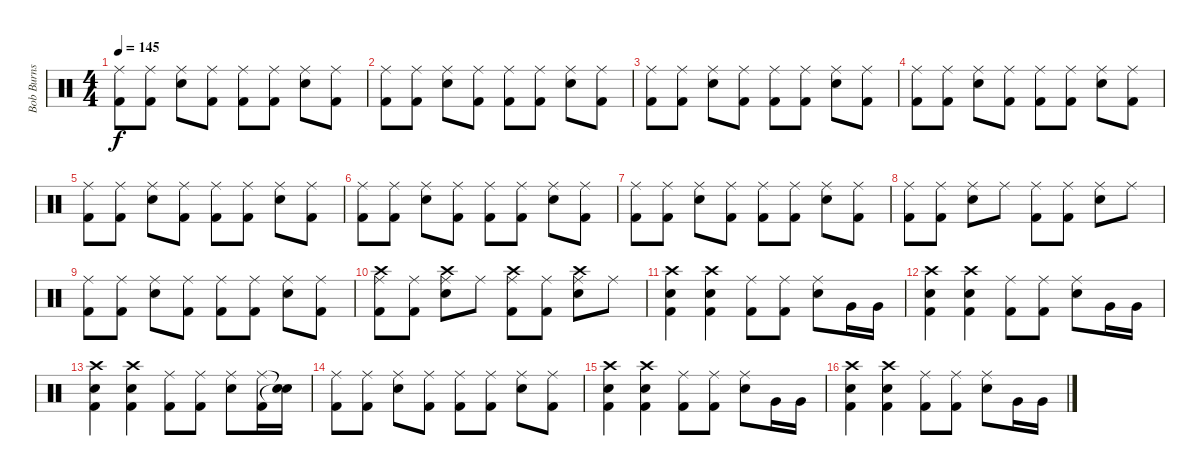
\track ("Bob Burns (Drums)" "Bob Burns ") {instrument percussion}
\staff {score}
\articulation defaults
\ts (4 4)
\tempo 145
\clef neutral
\ks c
("Ride (middle)" "Kick (hit) 2").8{dy f} ("Ride (middle)" "Kick (hit) 2").8 ("Ride (middle)" "Electric Snare (hit)").8 ("Ride (middle)" "Kick (hit) 2").8 ("Ride (middle)" "Kick (hit) 2").8 ("Ride (middle)" "Kick (hit) 2").8 ("Ride (middle)" "Electric Snare (hit)").8 ("Ride (middle)" "Kick (hit) 2").8 |
("Ride (middle)" "Kick (hit) 2").8 ("Ride (middle)" "Kick (hit) 2").8 ("Ride (middle)" "Electric Snare (hit)").8 ("Ride (middle)" "Kick (hit) 2").8 ("Ride (middle)" "Kick (hit) 2").8 ("Ride (middle)" "Kick (hit) 2").8 ("Ride (middle)" "Electric Snare (hit)").8 ("Ride (middle)" "Kick (hit) 2").8 |
("Ride (middle)" "Kick (hit) 2").8 ("Ride (middle)" "Kick (hit) 2").8 ("Ride (middle)" "Electric Snare (hit)").8 ("Ride (middle)" "Kick (hit) 2").8 ("Ride (middle)" "Kick (hit) 2").8 ("Ride (middle)" "Kick (hit) 2").8 ("Ride (middle)" "Electric Snare (hit)").8 ("Ride (middle)" "Kick (hit) 2").8 |
("Ride (middle)" "Kick (hit) 2").8 ("Ride (middle)" "Kick (hit) 2").8 ("Ride (middle)" "Electric Snare (hit)").8 ("Ride (middle)" "Kick (hit) 2").8 ("Ride (middle)" "Kick (hit) 2").8 ("Ride (middle)" "Kick (hit) 2").8 ("Ride (middle)" "Electric Snare (hit)").8 ("Ride (middle)" "Kick (hit) 2").8 |
("Ride (middle)" "Kick (hit) 2").8 ("Ride (middle)" "Kick (hit) 2").8 ("Ride (middle)" "Electric Snare (hit)").8 ("Ride (middle)" "Kick (hit) 2").8 ("Ride (middle)" "Kick (hit) 2").8 ("Ride (middle)" "Kick (hit) 2").8 ("Ride (middle)" "Electric Snare (hit)").8 ("Ride (middle)" "Kick (hit) 2").8 |
("Ride (middle)" "Kick (hit) 2").8 ("Ride (middle)" "Kick (hit) 2").8 ("Ride (middle)" "Electric Snare (hit)").8 ("Ride (middle)" "Kick (hit) 2").8 ("Ride (middle)" "Kick (hit) 2").8 ("Ride (middle)" "Kick (hit) 2").8 ("Ride (middle)" "Electric Snare (hit)").8 ("Ride (middle)" "Kick (hit) 2").8 |
("Ride (middle)" "Kick (hit) 2").8 ("Ride (middle)" "Kick (hit) 2").8 ("Ride (middle)" "Electric Snare (hit)").8 ("Ride (middle)" "Kick (hit) 2").8 ("Ride (middle)" "Kick (hit) 2").8 ("Ride (middle)" "Kick (hit) 2").8 ("Ride (middle)" "Electric Snare (hit)").8 ("Ride (middle)" "Kick (hit) 2").8 |
("Ride (middle)" "Kick (hit) 2").8 ("Ride (middle)" "Kick (hit) 2").8 ("Ride (middle)" "Electric Snare (hit)").8 "Ride (middle)".8 ("Ride (middle)" "Kick (hit) 2").8 ("Ride (middle)" "Kick (hit) 2").8 ("Ride (middle)" "Electric Snare (hit)").8 "Ride (middle)".8 |
("Ride (middle)" "Kick (hit) 2").8 ("Ride (middle)" "Kick (hit) 2").8 ("Ride (middle)" "Electric Snare (hit)").8 ("Ride (middle)" "Kick (hit) 2").8 ("Ride (middle)" "Kick (hit) 2").8 ("Ride (middle)" "Kick (hit) 2").8 ("Ride (middle)" "Electric Snare (hit)").8 ("Ride (middle)" "Kick (hit) 2").8 |
("Ride (middle)" "Crash high (hit)" "Kick (hit) 2").8 ("Ride (middle)" "Kick (hit) 2").8 ("Ride (middle)" "Crash high (hit)" "Electric Snare (hit)").8 "Ride (middle)".8 ("Ride (middle)" "Crash high (hit)" "Kick (hit) 2").8 ("Ride (middle)" "Kick (hit) 2").8 ("Ride (middle)" "Crash high (hit)" "Electric Snare (hit)").8 "Ride (middle)".8 |
("Crash high (hit)" "Electric Snare (hit)" "Kick (hit) 2").4 ("Crash high (hit)" "Electric Snare (hit)" "Kick (hit) 2").4 ("Ride (middle)" "Kick (hit) 2").8 ("Ride (middle)" "Kick (hit) 2").8 ("Ride (middle)" "Electric Snare (hit)").8 "Very Low Tom (hit)".16 "Very Low Tom (hit)".16 |
("Crash high (hit)" "Electric Snare (hit)" "Kick (hit) 2").4 ("Crash high (hit)" "Electric Snare (hit)" "Kick (hit) 2").4 ("Ride (middle)" "Kick (hit) 2").8 ("Ride (middle)" "Kick (hit) 2").8 ("Ride (middle)" "Electric Snare (hit)").8 "Very Low Tom (hit)".16 "Very Low Tom (hit)".16 |
("Crash high (hit)" "Electric Snare (hit)" "Kick (hit) 2").4 ("Crash high (hit)" "Electric Snare (hit)" "Kick (hit) 2").4 ("Ride (middle)" "Kick (hit) 2").8 ("Ride (middle)" "Kick (hit) 2").8 ("Ride (middle)" "Electric Snare (hit)").8 ("Ride (middle)" "Kick (hit) 2").16 ("Snare (hit)"{t} "Snare (hit)"{t}).16 |
("Ride (middle)" "Kick (hit) 2").8 ("Ride (middle)" "Kick (hit) 2").8 ("Ride (middle)" "Electric Snare (hit)").8 ("Ride (middle)" "Kick (hit) 2").8 ("Ride (middle)" "Kick (hit) 2").8 ("Ride (middle)" "Kick (hit) 2").8 ("Ride (middle)" "Electric Snare (hit)").8 ("Ride (middle)" "Kick (hit) 2").8 |
("Crash high (hit)" "Electric Snare (hit)" "Kick (hit) 2").4 ("Crash high (hit)" "Electric Snare (hit)" "Kick (hit) 2").4 ("Ride (middle)" "Kick (hit) 2").8 ("Ride (middle)" "Kick (hit) 2").8 ("Ride (middle)" "Electric Snare (hit)").8 "Very Low Tom (hit)".16 "Very Low Tom (hit)".16 |
("Crash high (hit)" "Electric Snare (hit)" "Kick (hit) 2").4 ("Crash high (hit)" "Electric Snare (hit)" "Kick (hit) 2").4 ("Ride (middle)" "Kick (hit) 2").8 ("Ride (middle)" "Kick (hit) 2").8 ("Ride (middle)" "Electric Snare (hit)").8 "Very Low Tom (hit)".16 "Very Low Tom (hit)".16
